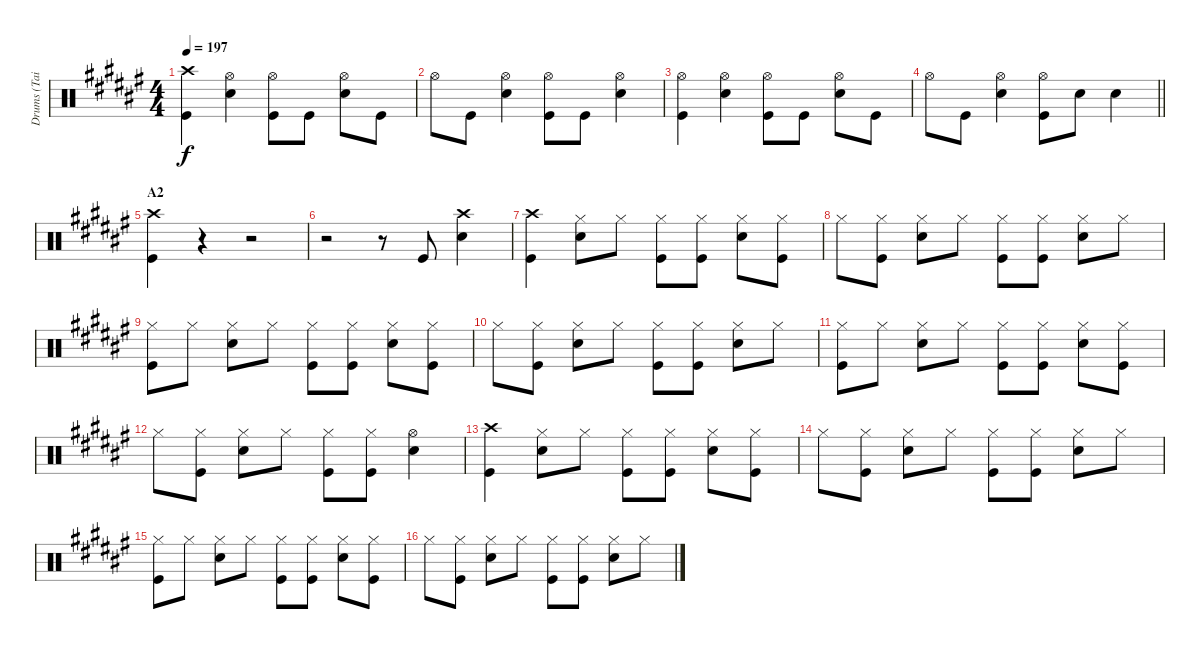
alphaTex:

\track ("Drums (Tainaka Ritsu)" "Drums (Tai") {instrument percussion}
\staff {score}
\articulation defaults
\ts (4 4)
\tempo 197
\clef neutral
\ks f#
("Crash high (hit)" "Kick (hit)").4{dy f} ("Hi-Hat (open)" "Snare (hit) 2").4 ("Hi-Hat (open)" "Kick (hit)").8 "Kick (hit)".8 ("Hi-Hat (open)" "Snare (hit) 2").8 "Kick (hit)".8 |
"Hi-Hat (open)".8 "Kick (hit)".8 ("Hi-Hat (open)" "Snare (hit) 2").4 ("Hi-Hat (open)" "Kick (hit)").8 "Kick (hit)".8 ("Hi-Hat (open)" "Snare (hit) 2").4 |
("Hi-Hat (open)" "Kick (hit)").4 ("Hi-Hat (open)" "Snare (hit) 2").4 ("Hi-Hat (open)" "Kick (hit)").8 "Kick (hit)".8 ("Hi-Hat (open)" "Snare (hit) 2").8 "Kick (hit)".8 |
\barLineRight lightlight "Hi-Hat (open)".8 "Kick (hit)".8
("Hi-Hat (open)" "Snare (hit) 2").4 ("Hi-Hat (open)" "Kick (hit)").8 "Snare (hit) 2".8 "Snare (hit) 2".4 |
\section ("" "A2")
("Crash high (hit)" "Kick (hit)").4 r.4 r.2 |
r.2 r.8 "Kick (hit)".8 ("Crash high (hit)" "Snare (hit) 2").4 |
("Crash high (hit)" "Kick (hit)").4 ("Hi-Hat (closed)" "Snare (hit) 2").8 "Hi-Hat (closed)".8 ("Hi-Hat (closed)" "Kick (hit)").8 ("Hi-Hat (closed)" "Kick (hit)").8 ("Hi-Hat (closed)" "Snare (hit) 2").8 ("Hi-Hat (closed)" "Kick (hit)").8 |
"Hi-Hat (closed)".8 ("Hi-Hat (closed)" "Kick (hit)").8 ("Hi-Hat (closed)" "Snare (hit) 2").8 "Hi-Hat (closed)".8 ("Hi-Hat (closed)" "Kick (hit)").8 ("Hi-Hat (closed)" "Kick (hit)").8 ("Hi-Hat (closed)" "Snare (hit) 2").8 "Hi-Hat (closed)".8 |
("Hi-Hat (closed)" "Kick (hit)").8 "Hi-Hat (closed)".8 ("Hi-Hat (closed)" "Snare (hit) 2").8 "Hi-Hat (closed)".8 ("Hi-Hat (closed)" "Kick (hit)").8 ("Hi-Hat (closed)" "Kick (hit)").8 ("Hi-Hat (closed)" "Snare (hit) 2").8 ("Hi-Hat (closed)" "Kick (hit)").8 |
"Hi-Hat (closed)".8 ("Hi-Hat (closed)" "Kick (hit)").8 ("Hi-Hat (closed)" "Snare (hit) 2").8 "Hi-Hat (closed)".8 ("Hi-Hat (closed)" "Kick (hit)").8 ("Hi-Hat (closed)" "Kick (hit)").8 ("Hi-Hat (closed)" "Snare (hit) 2").8 "Hi-Hat (closed)".8 |
("Hi-Hat (closed)" "Kick (hit)").8 "Hi-Hat (closed)".8 ("Hi-Hat (closed)" "Snare (hit) 2").8 "Hi-Hat (closed)".8 ("Hi-Hat (closed)" "Kick (hit)").8 ("Hi-Hat (closed)" "Kick (hit)").8 ("Hi-Hat (closed)" "Snare (hit) 2").8 ("Hi-Hat (closed)" "Kick (hit)").8 |
"Hi-Hat (closed)".8 ("Hi-Hat (closed)" "Kick (hit)").8 ("Hi-Hat (closed)" "Snare (hit) 2").8 "Hi-Hat (closed)".8 ("Hi-Hat (closed)" "Kick (hit)").8 ("Hi-Hat (closed)" "Kick (hit)").8 ("Hi-Hat (open)" "Snare (hit) 2").4 |
("Crash high (hit)" "Kick (hit)").4 ("Hi-Hat (closed)" "Snare (hit) 2").8 "Hi-Hat (closed)".8 ("Hi-Hat (closed)" "Kick (hit)").8 ("Hi-Hat (closed)" "Kick (hit)").8 ("Hi-Hat (closed)" "Snare (hit) 2").8 ("Hi-Hat (closed)" "Kick (hit)").8 |
"Hi-Hat (closed)".8 ("Hi-Hat (closed)" "Kick (hit)").8 ("Hi-Hat (closed)" "Snare (hit) 2").8 "Hi-Hat (closed)".8 ("Hi-Hat (closed)" "Kick (hit)").8 ("Hi-Hat (closed)" "Kick (hit)").8 ("Hi-Hat (closed)" "Snare (hit) 2").8 "Hi-Hat (closed)".8 |
("Hi-Hat (closed)" "Kick (hit)").8 "Hi-Hat (closed)".8 ("Hi-Hat (closed)" "Snare (hit) 2").8 "Hi-Hat (closed)".8 ("Hi-Hat (closed)" "Kick (hit)").8 ("Hi-Hat (closed)" "Kick (hit)").8 ("Hi-Hat (closed)" "Snare (hit) 2").8 ("Hi-Hat (closed)" "Kick (hit)").8 |
"Hi-Hat (closed)".8 ("Hi-Hat (closed)" "Kick (hit)").8 ("Hi-Hat (closed)" "Snare (hit) 2").8 "Hi-Hat (closed)".8 ("Hi-Hat (closed)" "Kick (hit)").8 ("Hi-Hat (closed)" "Kick (hit)").8 ("Hi-Hat (closed)" "Snare (hit) 2").8 "Hi-Hat (closed)".8
